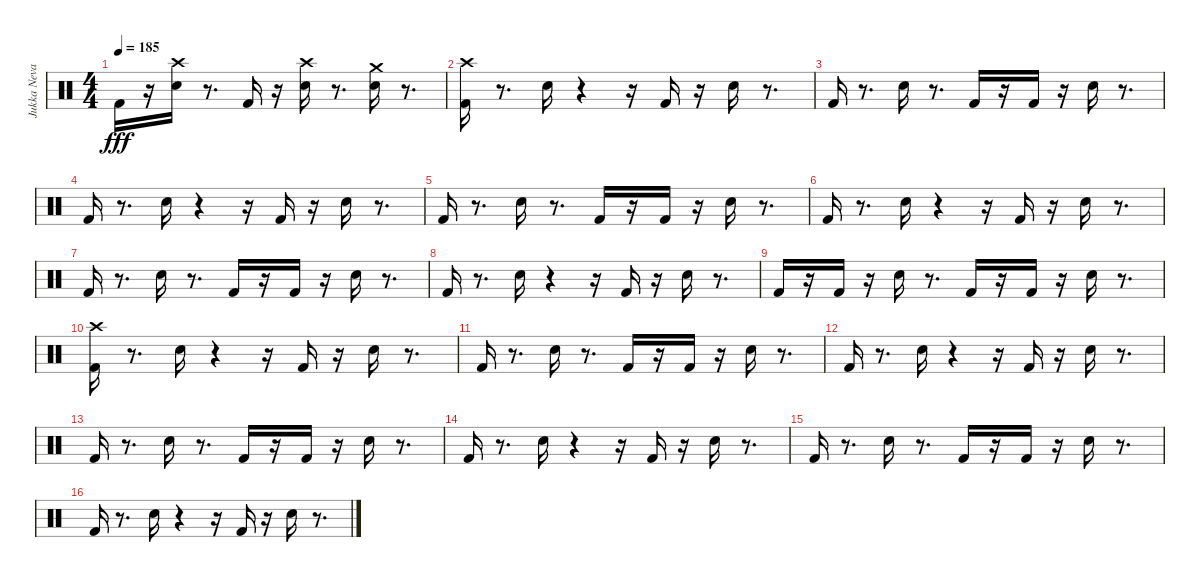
\track ("Jukka Nevalinen" "Jukka Neva") {instrument percussion}
\staff {score}
\articulation defaults
\ts (4 4)
\tempo 185
\clef neutral
\ks c "Kick (hit) 2".16{dy fff}
r.16 ("Crash high (hit)" "Snare (hit) 2").16 r.8{d} "Kick (hit) 2".16 r.16 ("Crash high (hit)" "Snare (hit) 2").16 r.8{d} ("Snare (hit) 2" "Crash medium (hit)").16 r.8{d} |
("Kick (hit) 2" "Crash high (hit)").16 r.8{d} "Snare (hit) 2".16 r.4 r.16 "Kick (hit) 2".16 r.16 "Snare (hit) 2".16 r.8{d} |
"Kick (hit) 2".16 r.8{d} "Snare (hit) 2".16 r.8{d} "Kick (hit) 2".16 r.16 "Kick (hit) 2".16 r.16 "Snare (hit) 2".16 r.8{d} |
"Kick (hit) 2".16 r.8{d} "Snare (hit) 2".16 r.4 r.16 "Kick (hit) 2".16 r.16 "Snare (hit) 2".16 r.8{d} |
"Kick (hit) 2".16 r.8{d} "Snare (hit) 2".16 r.8{d} "Kick (hit) 2".16 r.16 "Kick (hit) 2".16 r.16 "Snare (hit) 2".16 r.8{d} |
"Kick (hit) 2".16 r.8{d} "Snare (hit) 2".16 r.4 r.16 "Kick (hit) 2".16 r.16 "Snare (hit) 2".16 r.8{d} |
"Kick (hit) 2".16 r.8{d} "Snare (hit) 2".16 r.8{d} "Kick (hit) 2".16 r.16 "Kick (hit) 2".16 r.16 "Snare (hit) 2".16 r.8{d} |
"Kick (hit) 2".16 r.8{d} "Snare (hit) 2".16 r.4 r.16 "Kick (hit) 2".16 r.16 "Snare (hit) 2".16 r.8{d} |
"Kick (hit) 2".16 r.16 "Kick (hit) 2".16 r.16 "Snare (hit) 2".16 r.8{d} "Kick (hit) 2".16 r.16 "Kick (hit) 2".16 r.16 "Snare (hit) 2".16 r.8{d} |
("Kick (hit) 2" "Crash high (hit)").16 r.8{d} "Snare (hit) 2".16 r.4 r.16 "Kick (hit) 2".16 r.16 "Snare (hit) 2".16 r.8{d} |
"Kick (hit) 2".16 r.8{d} "Snare (hit) 2".16 r.8{d} "Kick (hit) 2".16 r.16 "Kick (hit) 2".16 r.16 "Snare (hit) 2".16 r.8{d} |
"Kick (hit) 2".16 r.8{d} "Snare (hit) 2".16 r.4 r.16 "Kick (hit) 2".16 r.16 "Snare (hit) 2".16 r.8{d} |
"Kick (hit) 2".16 r.8{d} "Snare (hit) 2".16 r.8{d} "Kick (hit) 2".16 r.16 "Kick (hit) 2".16 r.16 "Snare (hit) 2".16 r.8{d} |
"Kick (hit) 2".16 r.8{d} "Snare (hit) 2".16 r.4 r.16 "Kick (hit) 2".16 r.16 "Snare (hit) 2".16 r.8{d} |
"Kick (hit) 2".16 r.8{d} "Snare (hit) 2".16 r.8{d} "Kick (hit) 2".16 r.16 "Kick (hit) 2".16 r.16 "Snare (hit) 2".16 r.8{d} |
"Kick (hit) 2".16 r.8{d} "Snare (hit) 2".16 r.4 r.16 "Kick (hit) 2".16 r.16 "Snare (hit) 2".16 r.8{d}
